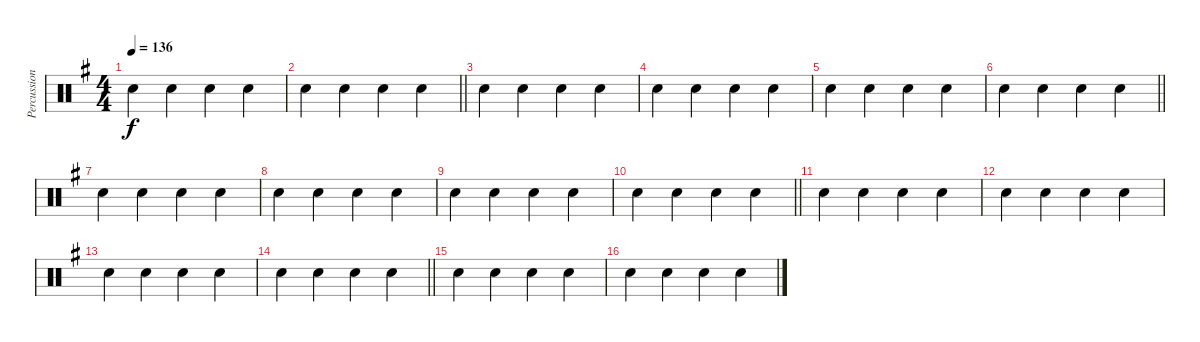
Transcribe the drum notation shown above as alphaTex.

\track ("Percussions" "Percussion") {instrument percussion}
\staff {score}
\articulation defaults
\ts (4 4)
\tempo 136
\clef neutral
\ks g "Hand Clap (hit)".4{dy f} "Hand Clap (hit)".4 "Hand Clap (hit)".4 "Hand Clap (hit)".4
|
\barLineRight lightlight "Hand Clap (hit)".4 "Hand Clap (hit)".4 "Hand Clap (hit)".4 "Hand Clap (hit)".4
|
"Hand Clap (hit)".4 "Hand Clap (hit)".4 "Hand Clap (hit)".4 "Hand Clap (hit)".4 |
"Hand Clap (hit)".4 "Hand Clap (hit)".4 "Hand Clap (hit)".4 "Hand Clap (hit)".4 |
"Hand Clap (hit)".4 "Hand Clap (hit)".4 "Hand Clap (hit)".4 "Hand Clap (hit)".4 |
\barLineRight lightlight "Hand Clap (hit)".4 "Hand Clap (hit)".4 "Hand Clap (hit)".4 "Hand Clap (hit)".4
|
"Hand Clap (hit)".4 "Hand Clap (hit)".4 "Hand Clap (hit)".4 "Hand Clap (hit)".4 |
"Hand Clap (hit)".4 "Hand Clap (hit)".4 "Hand Clap (hit)".4 "Hand Clap (hit)".4 |
"Hand Clap (hit)".4 "Hand Clap (hit)".4 "Hand Clap (hit)".4 "Hand Clap (hit)".4 |
\barLineRight lightlight "Hand Clap (hit)".4 "Hand Clap (hit)".4 "Hand Clap (hit)".4 "Hand Clap (hit)".4
|
"Hand Clap (hit)".4 "Hand Clap (hit)".4 "Hand Clap (hit)".4 "Hand Clap (hit)".4 |
"Hand Clap (hit)".4 "Hand Clap (hit)".4 "Hand Clap (hit)".4 "Hand Clap (hit)".4 |
"Hand Clap (hit)".4 "Hand Clap (hit)".4 "Hand Clap (hit)".4 "Hand Clap (hit)".4 |
\barLineRight lightlight "Hand Clap (hit)".4 "Hand Clap (hit)".4 "Hand Clap (hit)".4 "Hand Clap (hit)".4
|
"Hand Clap (hit)".4 "Hand Clap (hit)".4 "Hand Clap (hit)".4 "Hand Clap (hit)".4 |
"Hand Clap (hit)".4 "Hand Clap (hit)".4 "Hand Clap (hit)".4 "Hand Clap (hit)".4
